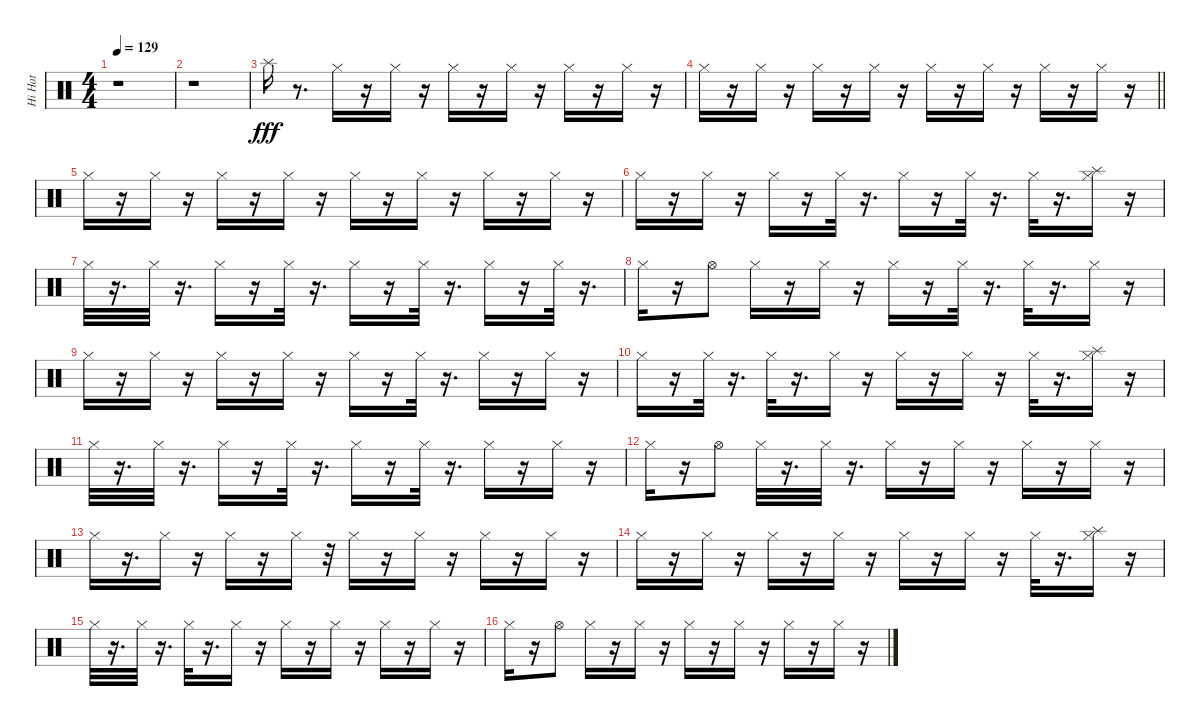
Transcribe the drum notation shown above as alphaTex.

\track ("Hi Hat" "Hi Hat") {instrument percussion}
\staff {score}
\articulation defaults
\ts (4 4)
\tempo 129
\clef neutral
\ks c
r.1{dy fff} |
r.1 |
"Splash (hit)".16 r.8{d} "Hi-Hat (closed)".16 r.16 "Hi-Hat (closed)".16 r.16 "Hi-Hat (closed)".16 r.16 "Hi-Hat (closed)".16 r.16 "Hi-Hat (closed)".16 r.16 "Hi-Hat (closed)".16 r.16 |
\barLineRight lightlight "Hi-Hat (closed)".16
r.16 "Hi-Hat (closed)".16 r.16 "Hi-Hat (closed)".16 r.16 "Hi-Hat (closed)".16 r.16 "Hi-Hat (closed)".16 r.16 "Hi-Hat (closed)".16 r.16 "Hi-Hat (closed)".16 r.16 "Hi-Hat (closed)".16 r.16 |
"Hi-Hat (closed)".16 r.16 "Hi-Hat (closed)".16 r.16 "Hi-Hat (closed)".16 r.16 "Hi-Hat (closed)".16 r.16 "Hi-Hat (closed)".16 r.16 "Hi-Hat (closed)".16 r.16 "Hi-Hat (closed)".16 r.16 "Hi-Hat (closed)".16 r.16 |
"Hi-Hat (closed)".16 r.16 "Hi-Hat (closed)".16 r.16 "Hi-Hat (closed)".16 r.16 "Hi-Hat (closed)".32 r.16{d} "Hi-Hat (closed)".16 r.16 "Hi-Hat (closed)".32 r.16{d} "Hi-Hat (closed)".32 r.16{d} ("Hi-Hat (closed)" "Splash (hit)").16 r.16 |
"Hi-Hat (closed)".32 r.16{d} "Hi-Hat (closed)".32 r.16{d} "Hi-Hat (closed)".16 r.16 "Hi-Hat (closed)".32 r.16{d} "Hi-Hat (closed)".16 r.16 "Hi-Hat (closed)".32 r.16{d} "Hi-Hat (closed)".16 r.16 "Hi-Hat (closed)".32 r.16{d} |
"Hi-Hat (closed)".16 r.16 "Hi-Hat (open)".8 "Hi-Hat (closed)".16 r.16 "Hi-Hat (closed)".16 r.16 "Hi-Hat (closed)".16 r.16 "Hi-Hat (closed)".32 r.16{d} "Hi-Hat (closed)".32 r.16{d} "Hi-Hat (closed)".16 r.16 |
"Hi-Hat (closed)".16 r.16 "Hi-Hat (closed)".16 r.16 "Hi-Hat (closed)".16 r.16 "Hi-Hat (closed)".16 r.16 "Hi-Hat (closed)".16 r.16 "Hi-Hat (closed)".32 r.16{d} "Hi-Hat (closed)".16 r.16 "Hi-Hat (closed)".16 r.16 |
"Hi-Hat (closed)".16 r.16 "Hi-Hat (closed)".32 r.16{d} "Hi-Hat (closed)".32 r.16{d} "Hi-Hat (closed)".16 r.16 "Hi-Hat (closed)".16 r.16 "Hi-Hat (closed)".16 r.16 "Hi-Hat (closed)".32 r.16{d} ("Hi-Hat (closed)" "Splash (hit)").16 r.16 |
"Hi-Hat (closed)".32 r.16{d} "Hi-Hat (closed)".32 r.16{d} "Hi-Hat (closed)".16 r.16 "Hi-Hat (closed)".32 r.16{d} "Hi-Hat (closed)".16 r.16 "Hi-Hat (closed)".32 r.16{d} "Hi-Hat (closed)".16 r.16 "Hi-Hat (closed)".16 r.16 |
"Hi-Hat (closed)".16 r.16 "Hi-Hat (open)".8 "Hi-Hat (closed)".32 r.16{d} "Hi-Hat (closed)".32 r.16{d} "Hi-Hat (closed)".16 r.16 "Hi-Hat (closed)".16 r.16 "Hi-Hat (closed)".16 r.16 "Hi-Hat (closed)".16 r.16 |
"Hi-Hat (closed)".16 r.16{d} "Hi-Hat (closed)".16 r.16 "Hi-Hat (closed)".16 r.16 "Hi-Hat (closed)".16 r.32 "Hi-Hat (closed)".16 r.16 "Hi-Hat (closed)".16 r.16 "Hi-Hat (closed)".16 r.16 "Hi-Hat (closed)".16 r.16 |
"Hi-Hat (closed)".16 r.16 "Hi-Hat (closed)".16 r.16 "Hi-Hat (closed)".16 r.16 "Hi-Hat (closed)".16 r.16 "Hi-Hat (closed)".16 r.16 "Hi-Hat (closed)".16 r.16 "Hi-Hat (closed)".32 r.16{d} ("Hi-Hat (closed)" "Splash (hit)").16 r.16 |
"Hi-Hat (closed)".32 r.16{d} "Hi-Hat (closed)".32 r.16{d} "Hi-Hat (closed)".32 r.16{d} "Hi-Hat (closed)".16 r.16 "Hi-Hat (closed)".16 r.16 "Hi-Hat (closed)".16 r.16 "Hi-Hat (closed)".16 r.16 "Hi-Hat (closed)".16 r.16 |
"Hi-Hat (closed)".16 r.16 "Hi-Hat (open)".8 "Hi-Hat (closed)".16 r.16 "Hi-Hat (closed)".16 r.16 "Hi-Hat (closed)".16 r.16 "Hi-Hat (closed)".16 r.16 "Hi-Hat (closed)".16 r.16 "Hi-Hat (closed)".16 r.16
